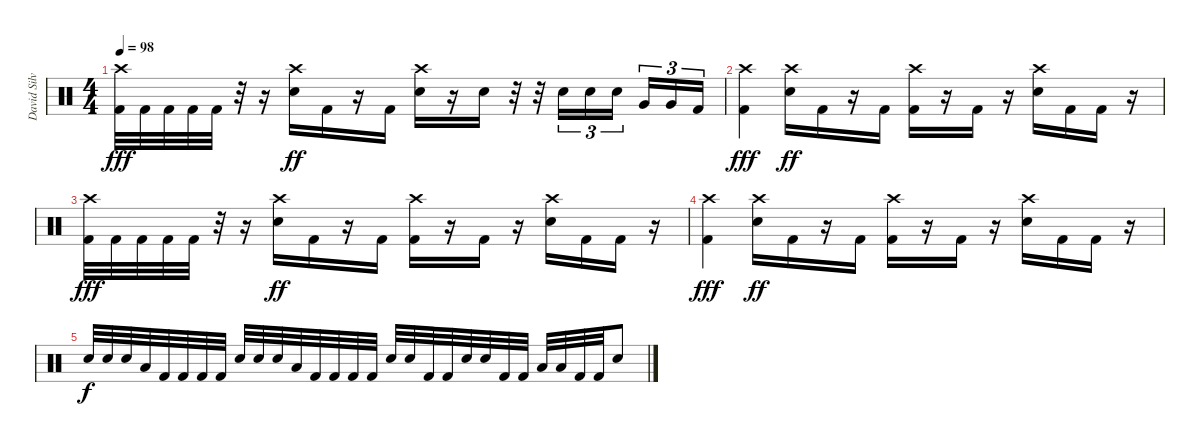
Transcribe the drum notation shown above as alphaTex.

\track ("David Silveria" "David Silv") {instrument percussion}
\staff {score}
\articulation defaults
\ts (4 4)
\tempo 98
\clef neutral
\ks c
("Crash high (hit)" "Kick (hit) 2").32{dy fff} "Kick (hit) 2".32 "Kick (hit) 2".32 "Kick (hit) 2".32 "Kick (hit) 2".32 r.32 r.16 ("Crash high (hit)" "Snare (hit) 2").16{dy ff} "Kick (hit) 2".16 r.16 "Kick (hit) 2".16 ("Crash high (hit)" "Snare (hit) 2").16 r.16 "Snare (hit) 2".16 r.32 r.32 "Snare (hit) 2".16{tu (3 2)} "Snare (hit) 2".16{tu (3 2)} "Snare (hit) 2".16{tu (3 2) beam splitsecondary} "Very Low Tom (hit)".16{tu (3 2)} "Very Low Tom (hit)".16{tu (3 2)} "Kick (hit) 2".16{tu (3 2)} |
("Crash high (hit)" "Kick (hit) 2").4{dy fff} ("Crash high (hit)" "Snare (hit) 2").16{dy ff} "Kick (hit) 2".16 r.16 "Kick (hit) 2".16 ("Crash high (hit)" "Kick (hit) 2").16 r.16 "Kick (hit) 2".16 r.16 ("Crash high (hit)" "Snare (hit) 2").16 "Kick (hit) 2".16 "Kick (hit) 2".16 r.16 |
("Crash high (hit)" "Kick (hit) 2").32{dy fff} "Kick (hit) 2".32 "Kick (hit) 2".32 "Kick (hit) 2".32 "Kick (hit) 2".32 r.32 r.16 ("Crash high (hit)" "Snare (hit) 2").16{dy ff} "Kick (hit) 2".16 r.16 "Kick (hit) 2".16 ("Crash high (hit)" "Kick (hit) 2").16 r.16 "Kick (hit) 2".16 r.16 ("Crash high (hit)" "Snare (hit) 2").16 "Kick (hit) 2".16 "Kick (hit) 2".16 r.16 |
("Crash high (hit)" "Kick (hit) 2").4{dy fff} ("Crash high (hit)" "Snare (hit) 2").16{dy ff} "Kick (hit) 2".16 r.16 "Kick (hit) 2".16 ("Crash high (hit)" "Kick (hit) 2").16 r.16 "Kick (hit) 2".16 r.16 ("Crash high (hit)" "Snare (hit) 2").16 "Kick (hit) 2".16 "Kick (hit) 2".16 r.16 |
"Snare (hit) 2".32{dy f} "Snare (hit) 2".32 "Snare (hit) 2".32 "Low Floor Tom (hit)".32 "Kick (hit) 2".32 "Kick (hit) 2".32 "Kick (hit) 2".32 "Kick (hit) 2".32 "Snare (hit) 2".32 "Snare (hit) 2".32 "Snare (hit) 2".32 "Low Floor Tom (hit)".32 "Kick (hit) 2".32 "Kick (hit) 2".32 "Kick (hit) 2".32 "Kick (hit) 2".32 "Snare (hit) 2".32 "Snare (hit) 2".32 "Kick (hit) 2".32 "Kick (hit) 2".32 "Snare (hit) 2".32 "Snare (hit) 2".32 "Kick (hit) 2".32 "Kick (hit) 2".32 "Low Floor Tom (hit)".32 "Low Floor Tom (hit)".32 "Kick (hit) 2".32 "Kick (hit) 2".32 "Snare (hit) 2".8
